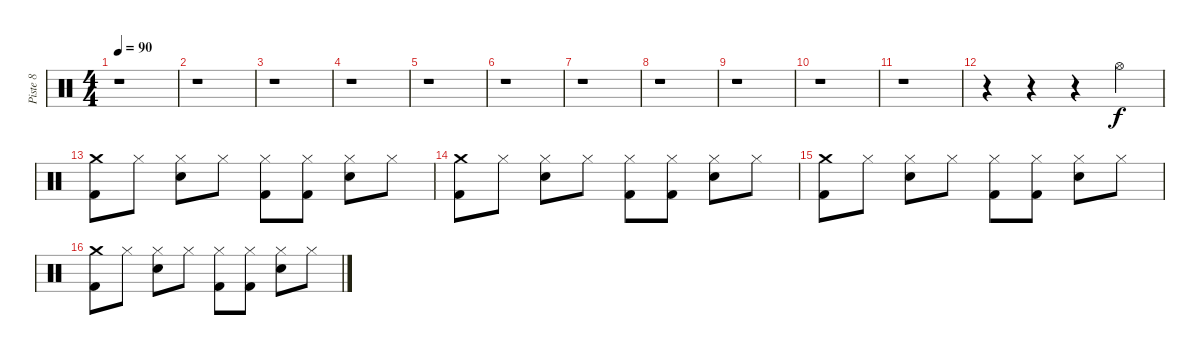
\track ("Piste 8" "Piste 8") {instrument percussion}
\staff {score}
\articulation defaults
\ts (4 4)
\tempo 90
\clef neutral
\ks c
r.1{dy f} |
r.1 |
r.1 |
r.1 |
r.1 |
r.1 |
r.1 |
r.1 |
r.1 |
r.1 |
r.1 |
r.4 r.4 r.4 "Hi-Hat (open)".4 |
("Crash medium (hit)" "Kick (hit) 2").8 "Hi-Hat (closed)".8 ("Hi-Hat (closed)" "Snare (hit) 2").8 "Hi-Hat (closed)".8 ("Hi-Hat (closed)" "Kick (hit) 2").8 ("Hi-Hat (closed)" "Kick (hit) 2").8 ("Hi-Hat (closed)" "Snare (hit) 2").8 "Hi-Hat (closed)".8 |
("Crash medium (hit)" "Kick (hit) 2").8 "Hi-Hat (closed)".8 ("Hi-Hat (closed)" "Snare (hit) 2").8 "Hi-Hat (closed)".8 ("Hi-Hat (closed)" "Kick (hit) 2").8 ("Hi-Hat (closed)" "Kick (hit) 2").8 ("Hi-Hat (closed)" "Snare (hit) 2").8 "Hi-Hat (closed)".8 |
("Crash medium (hit)" "Kick (hit) 2").8 "Hi-Hat (closed)".8 ("Hi-Hat (closed)" "Snare (hit) 2").8 "Hi-Hat (closed)".8 ("Hi-Hat (closed)" "Kick (hit) 2").8 ("Hi-Hat (closed)" "Kick (hit) 2").8 ("Hi-Hat (closed)" "Snare (hit) 2").8 "Hi-Hat (closed)".8 |
("Crash medium (hit)" "Kick (hit) 2").8 "Hi-Hat (closed)".8 ("Hi-Hat (closed)" "Snare (hit) 2").8 "Hi-Hat (closed)".8 ("Hi-Hat (closed)" "Kick (hit) 2").8 ("Hi-Hat (closed)" "Kick (hit) 2").8 ("Hi-Hat (closed)" "Snare (hit) 2").8 "Hi-Hat (closed)".8
